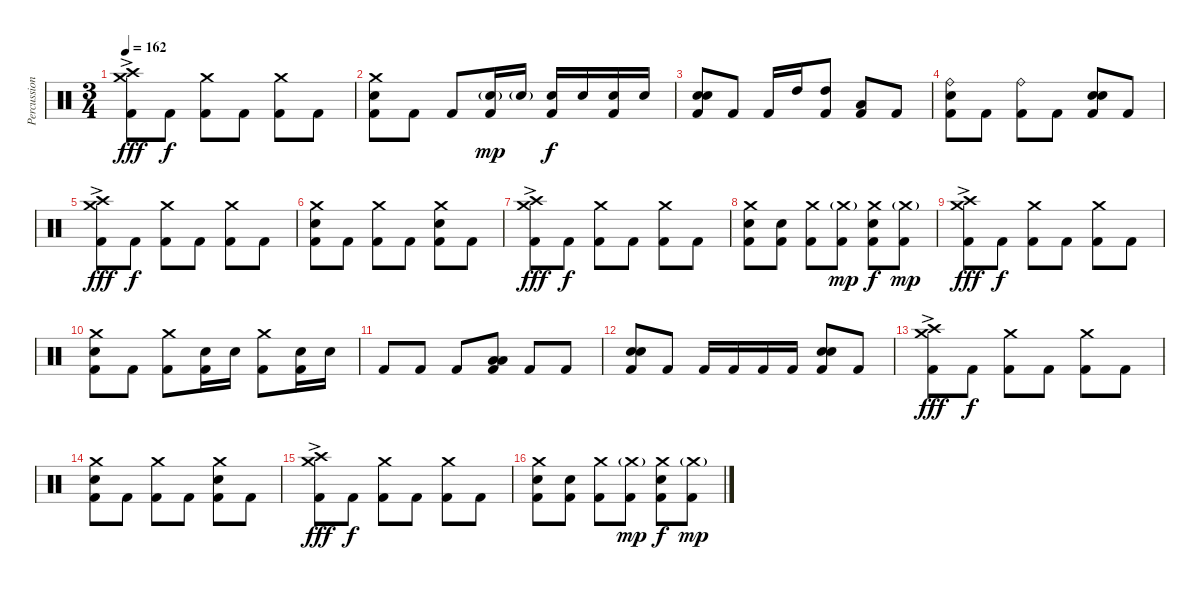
\track ("Percussion" "Percussion") {instrument percussion}
\staff {score}
\articulation defaults
\ts (3 4)
\tempo 162
\clef neutral
\ks c
("Crash high (hit)"{ac} "Crash medium (hit)" "Kick (hit) 2").8{dy fff} "Kick (hit) 2".8{dy f} ("Crash medium (hit)" "Kick (hit) 2").8 "Kick (hit) 2".8 ("Crash medium (hit)" "Kick (hit) 2").8 "Kick (hit) 2".8 |
("Crash medium (hit)" "Electric Snare (hit)" "Kick (hit) 2").8 "Kick (hit) 2".8 "Kick (hit) 2".8 ("Electric Snare (hit)"{g} "Kick (hit) 2").16{dy mp} "Electric Snare (hit)"{g}.16 ("Electric Snare (hit)" "Kick (hit) 2").16{dy f} "Electric Snare (hit)".16 ("Electric Snare (hit)" "Kick (hit) 2").16 "Electric Snare (hit)".16 |
("Electric Snare (hit)" "Electric Snare (hit)" "Kick (hit) 2").8{bd 60} "Kick (hit) 2".8 "Kick (hit) 2".16 "High Tom (hit)".16 ("High Tom (hit)" "Kick (hit) 2").8 ("Low Tom (hit)" "Kick (hit) 2").8 "Kick (hit) 2".8 |
("Ride (bell)" "Electric Snare (hit)" "Kick (hit) 2").8 "Kick (hit) 2".8 ("Ride (bell)" "Kick (hit) 2").8 "Kick (hit) 2".8 ("Electric Snare (hit)" "Electric Snare (hit)" "Kick (hit) 2").8{bd 60} "Kick (hit) 2".8 |
("Crash high (hit)"{ac} "Crash medium (hit)" "Kick (hit) 2").8{dy fff} "Kick (hit) 2".8{dy f} ("Crash medium (hit)" "Kick (hit) 2").8 "Kick (hit) 2".8 ("Crash medium (hit)" "Kick (hit) 2").8 "Kick (hit) 2".8 |
("Crash medium (hit)" "Electric Snare (hit)" "Kick (hit) 2").8 "Kick (hit) 2".8 ("Crash medium (hit)" "Kick (hit) 2").8 "Kick (hit) 2".8 ("Crash medium (hit)" "Electric Snare (hit)" "Kick (hit) 2").8 "Kick (hit) 2".8 |
("Crash high (hit)"{ac} "Crash medium (hit)" "Kick (hit) 2").8{dy fff} "Kick (hit) 2".8{dy f} ("Crash medium (hit)" "Kick (hit) 2").8 "Kick (hit) 2".8 ("Crash medium (hit)" "Kick (hit) 2").8 "Kick (hit) 2".8 |
("Crash medium (hit)" "Electric Snare (hit)" "Kick (hit) 2").8 ("Electric Snare (hit)" "Kick (hit) 2").8 ("Crash medium (hit)" "Kick (hit) 2").8 ("Crash medium (hit)"{g} "Kick (hit) 2").8{dy mp} ("Crash medium (hit)" "Electric Snare (hit)" "Kick (hit) 2").8{dy f} ("Crash medium (hit)"{g} "Kick (hit) 2").8{dy mp} |
("Crash high (hit)"{ac} "Crash medium (hit)" "Kick (hit) 2").8{dy fff} "Kick (hit) 2".8{dy f} ("Crash medium (hit)" "Kick (hit) 2").8 "Kick (hit) 2".8 ("Crash medium (hit)" "Kick (hit) 2").8 "Kick (hit) 2".8 |
("Crash medium (hit)" "Electric Snare (hit)" "Kick (hit) 2").8 "Kick (hit) 2".8 ("Crash medium (hit)" "Kick (hit) 2").8 ("Electric Snare (hit)" "Kick (hit) 2").16 "Electric Snare (hit)".16 ("Crash medium (hit)" "Kick (hit) 2").8 ("Electric Snare (hit)" "Kick (hit) 2").16 "Electric Snare (hit)".16 |
"Kick (hit) 2".8 "Kick (hit) 2".8 "Kick (hit) 2".8 ("Low Tom (hit)" "Low Tom (hit)" "Kick (hit) 2").8{bd 60} "Kick (hit) 2".8 "Kick (hit) 2".8 |
("Electric Snare (hit)" "Electric Snare (hit)" "Kick (hit) 2").8{bd 60} "Kick (hit) 2".8 "Kick (hit) 2".16 "Kick (hit) 2".16 "Kick (hit) 2".16 "Kick (hit) 2".16 ("Electric Snare (hit)" "Electric Snare (hit)" "Kick (hit) 2").8{bd 60} "Kick (hit) 2".8 |
("Crash high (hit)"{ac} "Crash medium (hit)" "Kick (hit) 2").8{dy fff} "Kick (hit) 2".8{dy f} ("Crash medium (hit)" "Kick (hit) 2").8 "Kick (hit) 2".8 ("Crash medium (hit)" "Kick (hit) 2").8 "Kick (hit) 2".8 |
("Crash medium (hit)" "Electric Snare (hit)" "Kick (hit) 2").8 "Kick (hit) 2".8 ("Crash medium (hit)" "Kick (hit) 2").8 "Kick (hit) 2".8 ("Crash medium (hit)" "Electric Snare (hit)" "Kick (hit) 2").8 "Kick (hit) 2".8 |
("Crash high (hit)"{ac} "Crash medium (hit)" "Kick (hit) 2").8{dy fff} "Kick (hit) 2".8{dy f} ("Crash medium (hit)" "Kick (hit) 2").8 "Kick (hit) 2".8 ("Crash medium (hit)" "Kick (hit) 2").8 "Kick (hit) 2".8 |
("Crash medium (hit)" "Electric Snare (hit)" "Kick (hit) 2").8 ("Electric Snare (hit)" "Kick (hit) 2").8 ("Crash medium (hit)" "Kick (hit) 2").8 ("Crash medium (hit)"{g} "Kick (hit) 2").8{dy mp} ("Crash medium (hit)" "Electric Snare (hit)" "Kick (hit) 2").8{dy f} ("Crash medium (hit)"{g} "Kick (hit) 2").8{dy mp}
